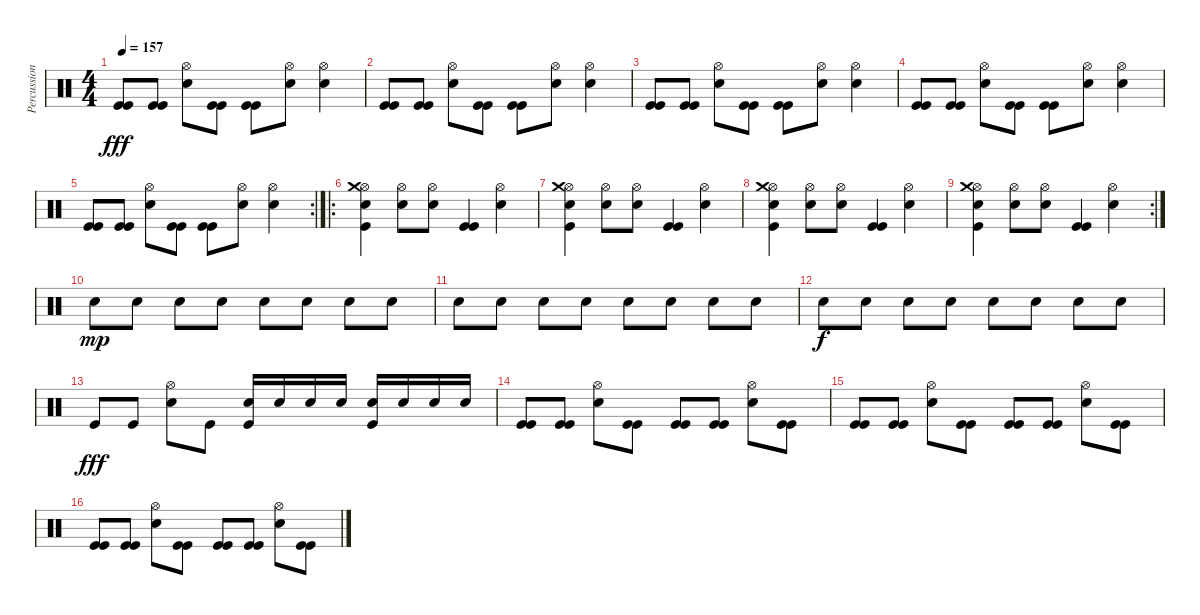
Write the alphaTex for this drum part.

\track ("Percussions" "Percussion") {instrument percussion}
\staff {score}
\articulation defaults
\ts (4 4)
\tempo 157
\clef neutral
\ks c
("Kick (hit)" "Kick (hit)").8{dy fff} ("Kick (hit)" "Kick (hit)").8 ("Snare (hit) 2" "Hi-Hat (open)").8 ("Kick (hit)" "Kick (hit)").8 ("Kick (hit)" "Kick (hit)").8 ("Snare (hit) 2" "Hi-Hat (open)").8 ("Snare (hit) 2" "Hi-Hat (open)").4 |
("Kick (hit)" "Kick (hit)").8 ("Kick (hit)" "Kick (hit)").8 ("Snare (hit) 2" "Hi-Hat (open)").8 ("Kick (hit)" "Kick (hit)").8 ("Kick (hit)" "Kick (hit)").8 ("Snare (hit) 2" "Hi-Hat (open)").8 ("Snare (hit) 2" "Hi-Hat (open)").4 |
("Kick (hit)" "Kick (hit)").8 ("Kick (hit)" "Kick (hit)").8 ("Snare (hit) 2" "Hi-Hat (open)").8 ("Kick (hit)" "Kick (hit)").8 ("Kick (hit)" "Kick (hit)").8 ("Snare (hit) 2" "Hi-Hat (open)").8 ("Snare (hit) 2" "Hi-Hat (open)").4 |
("Kick (hit)" "Kick (hit)").8 ("Kick (hit)" "Kick (hit)").8 ("Snare (hit) 2" "Hi-Hat (open)").8 ("Kick (hit)" "Kick (hit)").8 ("Kick (hit)" "Kick (hit)").8 ("Snare (hit) 2" "Hi-Hat (open)").8 ("Snare (hit) 2" "Hi-Hat (open)").4 |
\rc 2
("Kick (hit)" "Kick (hit)").8 ("Kick (hit)" "Kick (hit)").8 ("Snare (hit) 2" "Hi-Hat (open)").8 ("Kick (hit)" "Kick (hit)").8 ("Kick (hit)" "Kick (hit)").8 ("Snare (hit) 2" "Hi-Hat (open)").8 ("Snare (hit) 2" "Hi-Hat (open)").4 |
\ro
("Hi-Hat (open)" "Snare (hit) 2" "Crash medium (hit)" "Kick (hit)").4 ("Snare (hit) 2" "Hi-Hat (open)").8 ("Snare (hit) 2" "Hi-Hat (open)").8 ("Kick (hit)" "Kick (hit)").4 ("Snare (hit) 2" "Hi-Hat (open)").4 |
("Hi-Hat (open)" "Snare (hit) 2" "Crash medium (hit)" "Kick (hit)").4 ("Snare (hit) 2" "Hi-Hat (open)").8 ("Snare (hit) 2" "Hi-Hat (open)").8 ("Kick (hit)" "Kick (hit)").4 ("Snare (hit) 2" "Hi-Hat (open)").4 |
("Hi-Hat (open)" "Snare (hit) 2" "Crash medium (hit)" "Kick (hit)").4 ("Snare (hit) 2" "Hi-Hat (open)").8 ("Snare (hit) 2" "Hi-Hat (open)").8 ("Kick (hit)" "Kick (hit)").4 ("Snare (hit) 2" "Hi-Hat (open)").4 |
\rc 2
("Hi-Hat (open)" "Snare (hit) 2" "Crash medium (hit)" "Kick (hit)").4 ("Snare (hit) 2" "Hi-Hat (open)").8 ("Snare (hit) 2" "Hi-Hat (open)").8 ("Kick (hit)" "Kick (hit)").4 ("Snare (hit) 2" "Hi-Hat (open)").4 |
"Snare (hit) 2".8{dy mp} "Snare (hit) 2".8 "Snare (hit) 2".8 "Snare (hit) 2".8 "Snare (hit) 2".8 "Snare (hit) 2".8 "Snare (hit) 2".8 "Snare (hit) 2".8 |
"Snare (hit) 2".8 "Snare (hit) 2".8 "Snare (hit) 2".8 "Snare (hit) 2".8 "Snare (hit) 2".8 "Snare (hit) 2".8 "Snare (hit) 2".8 "Snare (hit) 2".8 |
"Snare (hit) 2".8{dy f} "Snare (hit) 2".8 "Snare (hit) 2".8 "Snare (hit) 2".8 "Snare (hit) 2".8 "Snare (hit) 2".8 "Snare (hit) 2".8 "Snare (hit) 2".8 |
"Kick (hit)".8{dy fff} "Kick (hit)".8 ("Snare (hit) 2" "Hi-Hat (open)").8 "Kick (hit)".8 ("Snare (hit) 2" "Kick (hit)").16 "Snare (hit) 2".16 "Snare (hit) 2".16 "Snare (hit) 2".16 ("Snare (hit) 2" "Kick (hit)").16 "Snare (hit) 2".16 "Snare (hit) 2".16 "Snare (hit) 2".16 |
("Kick (hit)" "Kick (hit)").8 ("Kick (hit)" "Kick (hit)").8 ("Snare (hit) 2" "Hi-Hat (open)").8 ("Kick (hit)" "Kick (hit)").8 ("Kick (hit)" "Kick (hit)").8 ("Kick (hit)" "Kick (hit)").8 ("Snare (hit) 2" "Hi-Hat (open)").8 ("Kick (hit)" "Kick (hit)").8 |
("Kick (hit)" "Kick (hit)").8 ("Kick (hit)" "Kick (hit)").8 ("Snare (hit) 2" "Hi-Hat (open)").8 ("Kick (hit)" "Kick (hit)").8 ("Kick (hit)" "Kick (hit)").8 ("Kick (hit)" "Kick (hit)").8 ("Snare (hit) 2" "Hi-Hat (open)").8 ("Kick (hit)" "Kick (hit)").8 |
("Kick (hit)" "Kick (hit)").8 ("Kick (hit)" "Kick (hit)").8 ("Snare (hit) 2" "Hi-Hat (open)").8 ("Kick (hit)" "Kick (hit)").8 ("Kick (hit)" "Kick (hit)").8 ("Kick (hit)" "Kick (hit)").8 ("Snare (hit) 2" "Hi-Hat (open)").8 ("Kick (hit)" "Kick (hit)").8
